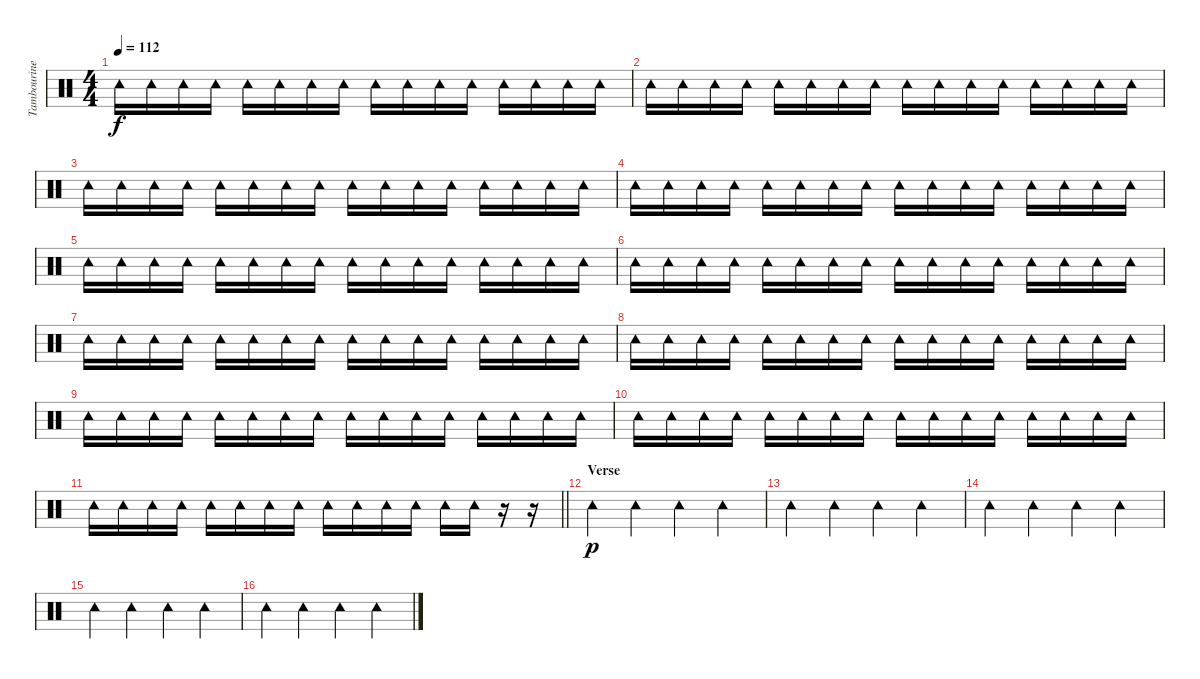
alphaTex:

\track ("Tambourine" "Tambourine") {instrument percussion}
\staff {score}
\articulation defaults
\ts (4 4)
\tempo 112
\clef neutral
\ks c "Tambourine (hit)".16{dy f} "Tambourine (hit)".16 "Tambourine (hit)".16 "Tambourine (hit)".16 "Tambourine (hit)".16 "Tambourine (hit)".16 "Tambourine (hit)".16 "Tambourine (hit)".16 "Tambourine (hit)".16 "Tambourine (hit)".16 "Tambourine (hit)".16 "Tambourine (hit)".16 "Tambourine (hit)".16 "Tambourine (hit)".16 "Tambourine (hit)".16 "Tambourine (hit)".16
|
"Tambourine (hit)".16 "Tambourine (hit)".16 "Tambourine (hit)".16 "Tambourine (hit)".16 "Tambourine (hit)".16 "Tambourine (hit)".16 "Tambourine (hit)".16 "Tambourine (hit)".16 "Tambourine (hit)".16 "Tambourine (hit)".16 "Tambourine (hit)".16 "Tambourine (hit)".16 "Tambourine (hit)".16 "Tambourine (hit)".16 "Tambourine (hit)".16 "Tambourine (hit)".16 |
"Tambourine (hit)".16 "Tambourine (hit)".16 "Tambourine (hit)".16 "Tambourine (hit)".16 "Tambourine (hit)".16 "Tambourine (hit)".16 "Tambourine (hit)".16 "Tambourine (hit)".16 "Tambourine (hit)".16 "Tambourine (hit)".16 "Tambourine (hit)".16 "Tambourine (hit)".16 "Tambourine (hit)".16 "Tambourine (hit)".16 "Tambourine (hit)".16 "Tambourine (hit)".16 |
"Tambourine (hit)".16 "Tambourine (hit)".16 "Tambourine (hit)".16 "Tambourine (hit)".16 "Tambourine (hit)".16 "Tambourine (hit)".16 "Tambourine (hit)".16 "Tambourine (hit)".16 "Tambourine (hit)".16 "Tambourine (hit)".16 "Tambourine (hit)".16 "Tambourine (hit)".16 "Tambourine (hit)".16 "Tambourine (hit)".16 "Tambourine (hit)".16 "Tambourine (hit)".16 |
"Tambourine (hit)".16 "Tambourine (hit)".16 "Tambourine (hit)".16 "Tambourine (hit)".16 "Tambourine (hit)".16 "Tambourine (hit)".16 "Tambourine (hit)".16 "Tambourine (hit)".16 "Tambourine (hit)".16 "Tambourine (hit)".16 "Tambourine (hit)".16 "Tambourine (hit)".16 "Tambourine (hit)".16 "Tambourine (hit)".16 "Tambourine (hit)".16 "Tambourine (hit)".16 |
"Tambourine (hit)".16 "Tambourine (hit)".16 "Tambourine (hit)".16 "Tambourine (hit)".16 "Tambourine (hit)".16 "Tambourine (hit)".16 "Tambourine (hit)".16 "Tambourine (hit)".16 "Tambourine (hit)".16 "Tambourine (hit)".16 "Tambourine (hit)".16 "Tambourine (hit)".16 "Tambourine (hit)".16 "Tambourine (hit)".16 "Tambourine (hit)".16 "Tambourine (hit)".16 |
"Tambourine (hit)".16 "Tambourine (hit)".16 "Tambourine (hit)".16 "Tambourine (hit)".16 "Tambourine (hit)".16 "Tambourine (hit)".16 "Tambourine (hit)".16 "Tambourine (hit)".16 "Tambourine (hit)".16 "Tambourine (hit)".16 "Tambourine (hit)".16 "Tambourine (hit)".16 "Tambourine (hit)".16 "Tambourine (hit)".16 "Tambourine (hit)".16 "Tambourine (hit)".16 |
"Tambourine (hit)".16 "Tambourine (hit)".16 "Tambourine (hit)".16 "Tambourine (hit)".16 "Tambourine (hit)".16 "Tambourine (hit)".16 "Tambourine (hit)".16 "Tambourine (hit)".16 "Tambourine (hit)".16 "Tambourine (hit)".16 "Tambourine (hit)".16 "Tambourine (hit)".16 "Tambourine (hit)".16 "Tambourine (hit)".16 "Tambourine (hit)".16 "Tambourine (hit)".16 |
"Tambourine (hit)".16 "Tambourine (hit)".16 "Tambourine (hit)".16 "Tambourine (hit)".16 "Tambourine (hit)".16 "Tambourine (hit)".16 "Tambourine (hit)".16 "Tambourine (hit)".16 "Tambourine (hit)".16 "Tambourine (hit)".16 "Tambourine (hit)".16 "Tambourine (hit)".16 "Tambourine (hit)".16 "Tambourine (hit)".16 "Tambourine (hit)".16 "Tambourine (hit)".16 |
"Tambourine (hit)".16 "Tambourine (hit)".16 "Tambourine (hit)".16 "Tambourine (hit)".16 "Tambourine (hit)".16 "Tambourine (hit)".16 "Tambourine (hit)".16 "Tambourine (hit)".16 "Tambourine (hit)".16 "Tambourine (hit)".16 "Tambourine (hit)".16 "Tambourine (hit)".16 "Tambourine (hit)".16 "Tambourine (hit)".16 "Tambourine (hit)".16 "Tambourine (hit)".16 |
\barLineRight lightlight "Tambourine (hit)".16 "Tambourine (hit)".16 "Tambourine (hit)".16 "Tambourine (hit)".16 "Tambourine (hit)".16 "Tambourine (hit)".16 "Tambourine (hit)".16 "Tambourine (hit)".16 "Tambourine (hit)".16 "Tambourine (hit)".16 "Tambourine (hit)".16 "Tambourine (hit)".16 "Tambourine (hit)".16 "Tambourine (hit)".16
r.16 r.16 |
\section ("" "Verse")
"Tambourine (hit)".4{dy p} "Tambourine (hit)".4 "Tambourine (hit)".4 "Tambourine (hit)".4 |
"Tambourine (hit)".4 "Tambourine (hit)".4 "Tambourine (hit)".4 "Tambourine (hit)".4 |
"Tambourine (hit)".4 "Tambourine (hit)".4 "Tambourine (hit)".4 "Tambourine (hit)".4 |
"Tambourine (hit)".4 "Tambourine (hit)".4 "Tambourine (hit)".4 "Tambourine (hit)".4 |
"Tambourine (hit)".4 "Tambourine (hit)".4 "Tambourine (hit)".4 "Tambourine (hit)".4
